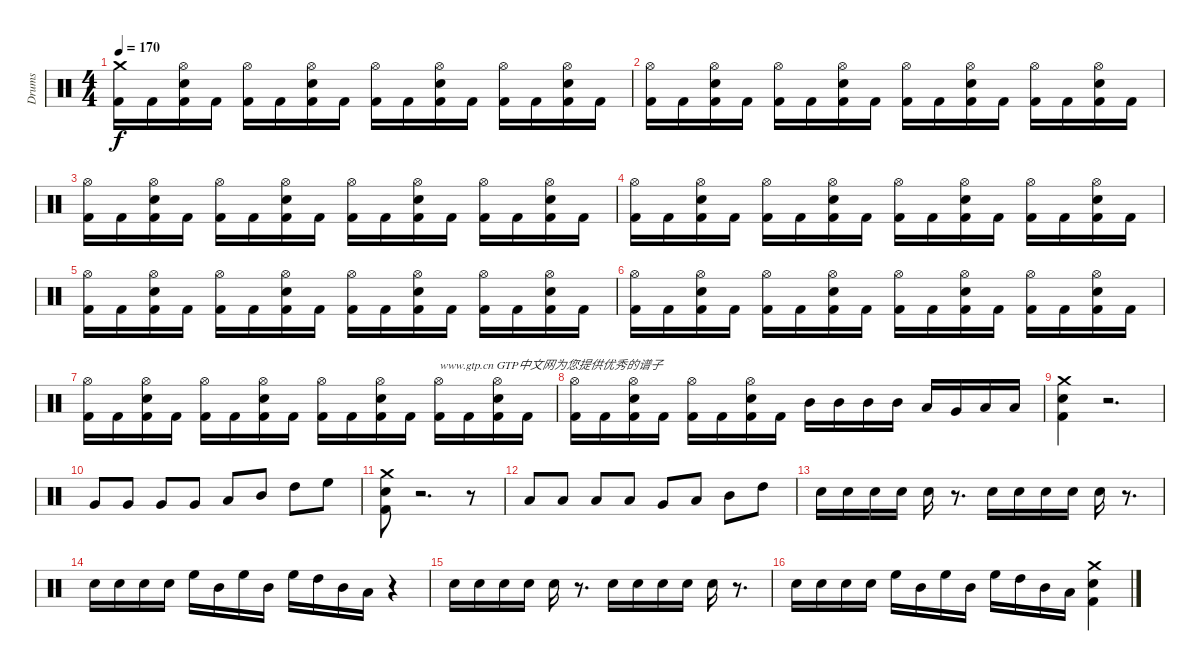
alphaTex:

\track ("Drums" "Drums") {instrument percussion}
\staff {score}
\articulation defaults
\ts (4 4)
\tempo 170
\clef neutral
\ks c
("Crash medium (hit)" "Kick (hit) 2").16{dy f} "Kick (hit) 2".16 ("Hi-Hat (open)" "Kick (hit) 2" "Electric Snare (hit)").16 "Kick (hit) 2".16 ("Hi-Hat (open)" "Kick (hit) 2").16 "Kick (hit) 2".16 ("Hi-Hat (open)" "Kick (hit) 2" "Electric Snare (hit)").16 "Kick (hit) 2".16 ("Hi-Hat (open)" "Kick (hit) 2").16 "Kick (hit) 2".16 ("Hi-Hat (open)" "Kick (hit) 2" "Electric Snare (hit)").16 "Kick (hit) 2".16 ("Hi-Hat (open)" "Kick (hit) 2").16 "Kick (hit) 2".16 ("Hi-Hat (open)" "Kick (hit) 2" "Electric Snare (hit)").16 "Kick (hit) 2".16 |
("Hi-Hat (open)" "Kick (hit) 2").16 "Kick (hit) 2".16 ("Hi-Hat (open)" "Kick (hit) 2" "Electric Snare (hit)").16 "Kick (hit) 2".16 ("Hi-Hat (open)" "Kick (hit) 2").16 "Kick (hit) 2".16 ("Hi-Hat (open)" "Kick (hit) 2" "Electric Snare (hit)").16 "Kick (hit) 2".16 ("Hi-Hat (open)" "Kick (hit) 2").16 "Kick (hit) 2".16 ("Hi-Hat (open)" "Kick (hit) 2" "Electric Snare (hit)").16 "Kick (hit) 2".16 ("Hi-Hat (open)" "Kick (hit) 2").16 "Kick (hit) 2".16 ("Hi-Hat (open)" "Kick (hit) 2" "Electric Snare (hit)").16 "Kick (hit) 2".16 |
("Hi-Hat (open)" "Kick (hit) 2").16 "Kick (hit) 2".16 ("Hi-Hat (open)" "Kick (hit) 2" "Electric Snare (hit)").16 "Kick (hit) 2".16 ("Hi-Hat (open)" "Kick (hit) 2").16 "Kick (hit) 2".16 ("Hi-Hat (open)" "Kick (hit) 2" "Electric Snare (hit)").16 "Kick (hit) 2".16 ("Hi-Hat (open)" "Kick (hit) 2").16 "Kick (hit) 2".16 ("Hi-Hat (open)" "Kick (hit) 2" "Electric Snare (hit)").16 "Kick (hit) 2".16 ("Hi-Hat (open)" "Kick (hit) 2").16 "Kick (hit) 2".16 ("Hi-Hat (open)" "Kick (hit) 2" "Electric Snare (hit)").16 "Kick (hit) 2".16 |
("Hi-Hat (open)" "Kick (hit) 2").16 "Kick (hit) 2".16 ("Hi-Hat (open)" "Kick (hit) 2" "Electric Snare (hit)").16 "Kick (hit) 2".16 ("Hi-Hat (open)" "Kick (hit) 2").16 "Kick (hit) 2".16 ("Hi-Hat (open)" "Kick (hit) 2" "Electric Snare (hit)").16 "Kick (hit) 2".16 ("Hi-Hat (open)" "Kick (hit) 2").16 "Kick (hit) 2".16 ("Hi-Hat (open)" "Kick (hit) 2" "Electric Snare (hit)").16 "Kick (hit) 2".16 ("Hi-Hat (open)" "Kick (hit) 2").16 "Kick (hit) 2".16 ("Hi-Hat (open)" "Kick (hit) 2" "Electric Snare (hit)").16 "Kick (hit) 2".16 |
("Hi-Hat (open)" "Kick (hit) 2").16 "Kick (hit) 2".16 ("Hi-Hat (open)" "Kick (hit) 2" "Electric Snare (hit)").16 "Kick (hit) 2".16 ("Hi-Hat (open)" "Kick (hit) 2").16 "Kick (hit) 2".16 ("Hi-Hat (open)" "Kick (hit) 2" "Electric Snare (hit)").16 "Kick (hit) 2".16 ("Hi-Hat (open)" "Kick (hit) 2").16 "Kick (hit) 2".16 ("Hi-Hat (open)" "Kick (hit) 2" "Electric Snare (hit)").16 "Kick (hit) 2".16 ("Hi-Hat (open)" "Kick (hit) 2").16 "Kick (hit) 2".16 ("Hi-Hat (open)" "Kick (hit) 2" "Electric Snare (hit)").16 "Kick (hit) 2".16 |
("Hi-Hat (open)" "Kick (hit) 2").16 "Kick (hit) 2".16 ("Hi-Hat (open)" "Kick (hit) 2" "Electric Snare (hit)").16 "Kick (hit) 2".16 ("Hi-Hat (open)" "Kick (hit) 2").16 "Kick (hit) 2".16 ("Hi-Hat (open)" "Kick (hit) 2" "Electric Snare (hit)").16 "Kick (hit) 2".16 ("Hi-Hat (open)" "Kick (hit) 2").16 "Kick (hit) 2".16 ("Hi-Hat (open)" "Kick (hit) 2" "Electric Snare (hit)").16 "Kick (hit) 2".16 ("Hi-Hat (open)" "Kick (hit) 2").16 "Kick (hit) 2".16 ("Hi-Hat (open)" "Kick (hit) 2" "Electric Snare (hit)").16 "Kick (hit) 2".16 |
("Hi-Hat (open)" "Kick (hit) 2").16 "Kick (hit) 2".16 ("Hi-Hat (open)" "Kick (hit) 2" "Electric Snare (hit)").16 "Kick (hit) 2".16 ("Hi-Hat (open)" "Kick (hit) 2").16 "Kick (hit) 2".16 ("Hi-Hat (open)" "Kick (hit) 2" "Electric Snare (hit)").16 "Kick (hit) 2".16 ("Hi-Hat (open)" "Kick (hit) 2").16 "Kick (hit) 2".16 ("Hi-Hat (open)" "Kick (hit) 2" "Electric Snare (hit)").16 "Kick (hit) 2".16 ("Hi-Hat (open)" "Kick (hit) 2").16{txt "www.gtp.cn GTP中文网为您提供优秀的谱子"} "Kick (hit) 2".16 ("Hi-Hat (open)" "Kick (hit) 2" "Electric Snare (hit)").16 "Kick (hit) 2".16 |
("Hi-Hat (open)" "Kick (hit) 2").16 "Kick (hit) 2".16 ("Hi-Hat (open)" "Kick (hit) 2" "Electric Snare (hit)").16 "Kick (hit) 2".16 ("Hi-Hat (open)" "Kick (hit) 2").16 "Kick (hit) 2".16 ("Hi-Hat (open)" "Kick (hit) 2" "Electric Snare (hit)").16 "Kick (hit) 2".16 "Mid Tom (hit)".16 "Mid Tom (hit)".16 "Mid Tom (hit)".16 "Mid Tom (hit)".16 "Low Tom (hit)".16 "Very Low Tom (hit)".16 "Low Tom (hit)".16 "Low Tom (hit)".16 |
("Crash medium (hit)" "Electric Snare (hit)" "Kick (hit) 2").4 r.2{d} |
"Very Low Tom (hit)".8 "Very Low Tom (hit)".8 "Very Low Tom (hit)".8 "Very Low Tom (hit)".8 "Low Tom (hit)".8 "Mid Tom (hit)".8 "High Tom (hit)".8 "High Floor Tom (hit)".8 |
("Crash medium (hit)" "Electric Snare (hit)" "Kick (hit) 2").8 r.2{d} r.8 |
"Low Floor Tom (hit)".8 "Low Floor Tom (hit)".8 "Low Floor Tom (hit)".8 "Low Floor Tom (hit)".8 "Very Low Tom (hit)".8 "Low Tom (hit)".8 "Mid Tom (hit)".8 "High Tom (hit)".8 |
"Electric Snare (hit)".16 "Electric Snare (hit)".16 "Electric Snare (hit)".16 "Electric Snare (hit)".16 "Electric Snare (hit)".16 r.8{d} "Electric Snare (hit)".16 "Electric Snare (hit)".16 "Electric Snare (hit)".16 "Electric Snare (hit)".16 "Electric Snare (hit)".16 r.8{d} |
"Electric Snare (hit)".16 "Electric Snare (hit)".16 "Electric Snare (hit)".16 "Electric Snare (hit)".16 "High Floor Tom (hit)".16 "Mid Tom (hit)".16 "High Floor Tom (hit)".16 "Mid Tom (hit)".16 "High Floor Tom (hit)".16 "High Tom (hit)".16 "Mid Tom (hit)".16 "Low Tom (hit)".16 r.4 |
"Electric Snare (hit)".16 "Electric Snare (hit)".16 "Electric Snare (hit)".16 "Electric Snare (hit)".16 "Electric Snare (hit)".16 r.8{d} "Electric Snare (hit)".16 "Electric Snare (hit)".16 "Electric Snare (hit)".16 "Electric Snare (hit)".16 "Electric Snare (hit)".16 r.8{d} |
"Electric Snare (hit)".16 "Electric Snare (hit)".16 "Electric Snare (hit)".16 "Electric Snare (hit)".16 "High Floor Tom (hit)".16 "Mid Tom (hit)".16 "High Floor Tom (hit)".16 "Mid Tom (hit)".16 "High Floor Tom (hit)".16 "High Tom (hit)".16 "Mid Tom (hit)".16 "Low Tom (hit)".16 ("Crash medium (hit)" "Electric Snare (hit)" "Kick (hit) 2").4
